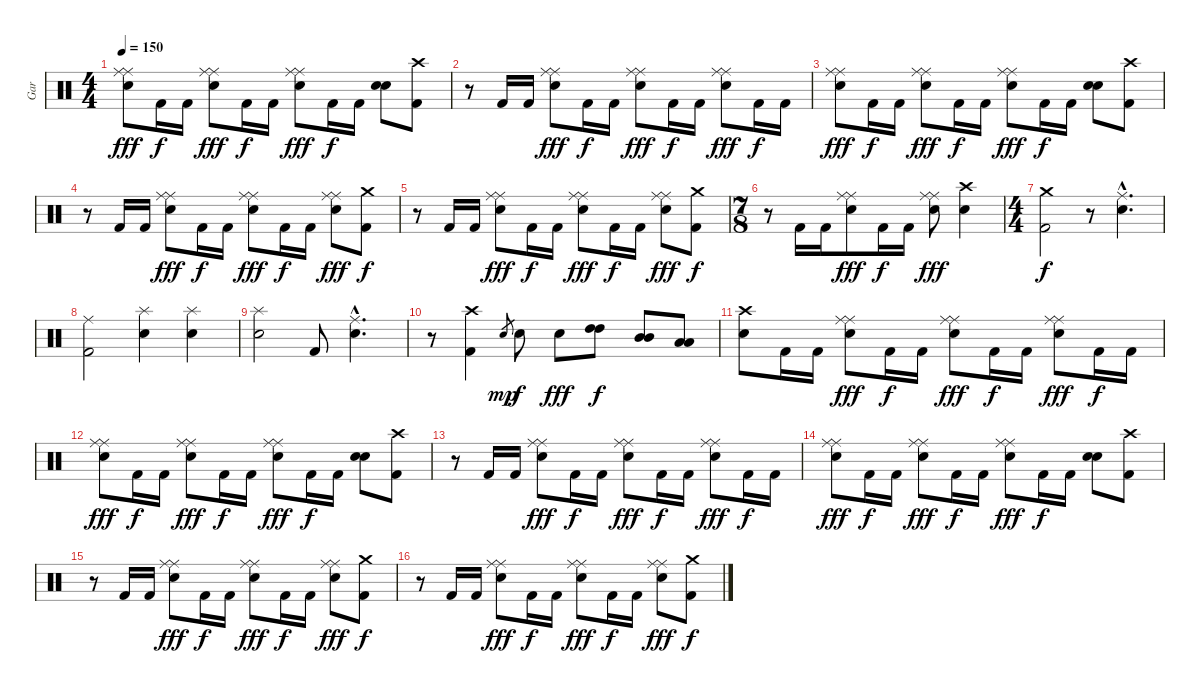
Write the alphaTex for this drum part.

\track ("Gar" "Gar") {instrument percussion}
\staff {score}
\articulation defaults
\ts (4 4)
\tempo 150
\clef neutral
\ks c
("Ride (middle)" "Ride (middle)" "Snare (hit) 2").8{dy fff} "Kick (hit) 2".16{dy f} "Kick (hit) 2".16 ("Ride (middle)" "Ride (middle)" "Snare (hit) 2").8{dy fff} "Kick (hit) 2".16{dy f} "Kick (hit) 2".16 ("Ride (middle)" "Ride (middle)" "Snare (hit) 2").8{dy fff} "Kick (hit) 2".16{dy f} "Kick (hit) 2".16 ("Snare (hit) 2" "Snare (hit) 2").8 ("Crash high (hit)" "Kick (hit) 2").8 |
r.8 "Kick (hit) 2".16 "Kick (hit) 2".16 ("Ride (middle)" "Ride (middle)" "Snare (hit) 2").8{dy fff} "Kick (hit) 2".16{dy f} "Kick (hit) 2".16 ("Ride (middle)" "Ride (middle)" "Snare (hit) 2").8{dy fff} "Kick (hit) 2".16{dy f} "Kick (hit) 2".16 ("Ride (middle)" "Ride (middle)" "Snare (hit) 2").8{dy fff} "Kick (hit) 2".16{dy f} "Kick (hit) 2".16 |
("Ride (middle)" "Ride (middle)" "Snare (hit) 2").8{dy fff} "Kick (hit) 2".16{dy f} "Kick (hit) 2".16 ("Ride (middle)" "Ride (middle)" "Snare (hit) 2").8{dy fff} "Kick (hit) 2".16{dy f} "Kick (hit) 2".16 ("Ride (middle)" "Ride (middle)" "Snare (hit) 2").8{dy fff} "Kick (hit) 2".16{dy f} "Kick (hit) 2".16 ("Snare (hit) 2" "Snare (hit) 2").8 ("Crash high (hit)" "Kick (hit) 2").8 |
r.8 "Kick (hit) 2".16 "Kick (hit) 2".16 ("Ride (middle)" "Ride (middle)" "Snare (hit) 2").8{dy fff} "Kick (hit) 2".16{dy f} "Kick (hit) 2".16 ("Ride (middle)" "Ride (middle)" "Snare (hit) 2").8{dy fff} "Kick (hit) 2".16{dy f} "Kick (hit) 2".16 ("Ride (middle)" "Ride (middle)" "Snare (hit) 2").8{dy fff} ("Crash medium (hit)" "Kick (hit) 2").8{dy f} |
r.8 "Kick (hit) 2".16 "Kick (hit) 2".16 ("Ride (middle)" "Ride (middle)" "Snare (hit) 2").8{dy fff} "Kick (hit) 2".16{dy f} "Kick (hit) 2".16 ("Ride (middle)" "Ride (middle)" "Snare (hit) 2").8{dy fff} "Kick (hit) 2".16{dy f} "Kick (hit) 2".16 ("Ride (middle)" "Ride (middle)" "Snare (hit) 2").8{dy fff} ("Crash medium (hit)" "Kick (hit) 2").8{dy f} |
\ts (7 8)
r.8 "Kick (hit) 2".16 "Kick (hit) 2".16 ("Ride (middle)" "Ride (middle)" "Snare (hit) 2").8{dy fff} "Kick (hit) 2".16{dy f} "Kick (hit) 2".16 ("Ride (middle)" "Ride (middle)" "Snare (hit) 2").8{dy fff} ("Crash high (hit)" "Snare (hit) 2").4 |
\ts (4 4)
("Crash medium (hit)" "Kick (hit) 2").2{dy f} r.8 ("Ride (middle)"{hac} "Snare (hit) 2"{hac}).4{d} |
("Ride (middle)" "Kick (hit) 2").2 ("Splash (hit)" "Snare (hit) 2").4 ("Splash (hit)" "Snare (hit) 2").4 |
("Splash (hit)" "Snare (hit) 2").2 "Kick (hit) 2".8 ("Ride (middle)"{hac} "Snare (hit) 2"{hac}).4{d} |
r.8 ("Crash high (hit)" "Kick (hit) 2").4 "Snare (hit) 2".8{gr dy mp} "Snare (hit) 2".8{dy f} "Snare (hit) 2".8{dy fff} ("High Tom (hit)" "High Tom (hit)").8{dy f} ("Mid Tom (hit)" "Mid Tom (hit)").8 ("Low Tom (hit)" "Low Tom (hit)").8 |
("Crash high (hit)" "Snare (hit) 2").8 "Kick (hit) 2".16 "Kick (hit) 2".16 ("Ride (middle)" "Ride (middle)" "Snare (hit) 2").8{dy fff} "Kick (hit) 2".16{dy f} "Kick (hit) 2".16 ("Ride (middle)" "Ride (middle)" "Snare (hit) 2").8{dy fff} "Kick (hit) 2".16{dy f} "Kick (hit) 2".16 ("Ride (middle)" "Ride (middle)" "Snare (hit) 2").8{dy fff} "Kick (hit) 2".16{dy f} "Kick (hit) 2".16 |
("Ride (middle)" "Ride (middle)" "Snare (hit) 2").8{dy fff} "Kick (hit) 2".16{dy f} "Kick (hit) 2".16 ("Ride (middle)" "Ride (middle)" "Snare (hit) 2").8{dy fff} "Kick (hit) 2".16{dy f} "Kick (hit) 2".16 ("Ride (middle)" "Ride (middle)" "Snare (hit) 2").8{dy fff} "Kick (hit) 2".16{dy f} "Kick (hit) 2".16 ("Snare (hit) 2" "Snare (hit) 2").8 ("Crash high (hit)" "Kick (hit) 2").8 |
r.8 "Kick (hit) 2".16 "Kick (hit) 2".16 ("Ride (middle)" "Ride (middle)" "Snare (hit) 2").8{dy fff} "Kick (hit) 2".16{dy f} "Kick (hit) 2".16 ("Ride (middle)" "Ride (middle)" "Snare (hit) 2").8{dy fff} "Kick (hit) 2".16{dy f} "Kick (hit) 2".16 ("Ride (middle)" "Ride (middle)" "Snare (hit) 2").8{dy fff} "Kick (hit) 2".16{dy f} "Kick (hit) 2".16 |
("Ride (middle)" "Ride (middle)" "Snare (hit) 2").8{dy fff} "Kick (hit) 2".16{dy f} "Kick (hit) 2".16 ("Ride (middle)" "Ride (middle)" "Snare (hit) 2").8{dy fff} "Kick (hit) 2".16{dy f} "Kick (hit) 2".16 ("Ride (middle)" "Ride (middle)" "Snare (hit) 2").8{dy fff} "Kick (hit) 2".16{dy f} "Kick (hit) 2".16 ("Snare (hit) 2" "Snare (hit) 2").8 ("Crash high (hit)" "Kick (hit) 2").8 |
r.8 "Kick (hit) 2".16 "Kick (hit) 2".16 ("Ride (middle)" "Ride (middle)" "Snare (hit) 2").8{dy fff} "Kick (hit) 2".16{dy f} "Kick (hit) 2".16 ("Ride (middle)" "Ride (middle)" "Snare (hit) 2").8{dy fff} "Kick (hit) 2".16{dy f} "Kick (hit) 2".16 ("Ride (middle)" "Ride (middle)" "Snare (hit) 2").8{dy fff} ("Crash medium (hit)" "Kick (hit) 2").8{dy f} |
r.8 "Kick (hit) 2".16 "Kick (hit) 2".16 ("Ride (middle)" "Ride (middle)" "Snare (hit) 2").8{dy fff} "Kick (hit) 2".16{dy f} "Kick (hit) 2".16 ("Ride (middle)" "Ride (middle)" "Snare (hit) 2").8{dy fff} "Kick (hit) 2".16{dy f} "Kick (hit) 2".16 ("Ride (middle)" "Ride (middle)" "Snare (hit) 2").8{dy fff} ("Crash medium (hit)" "Kick (hit) 2").8{dy f}
